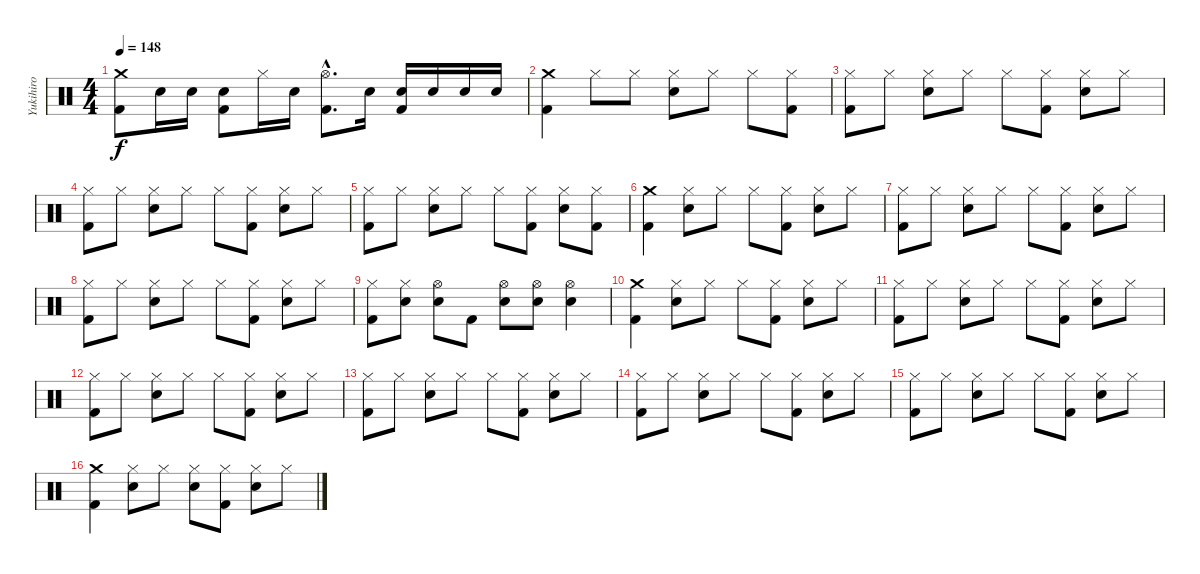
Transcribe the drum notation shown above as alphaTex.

\track ("Yukihiro" "Yukihiro") {instrument percussion}
\staff {score}
\articulation defaults
\ts (4 4)
\tempo 148
\clef neutral
\ks c
("Crash medium (hit)" "Kick (hit) 2").8{dy f} "Snare (hit) 2".16 "Snare (hit) 2".16 ("Snare (hit) 2" "Kick (hit) 2").8 "Hi-Hat (closed)".16 "Snare (hit) 2".16 ("Hi-Hat (open)"{hac} "Kick (hit) 2"{hac}).8{d} "Snare (hit) 2".16 ("Snare (hit) 2" "Kick (hit) 2").16 "Snare (hit) 2".16 "Snare (hit) 2".16 "Snare (hit) 2".16 |
("Crash medium (hit)" "Kick (hit) 2").4 "Hi-Hat (closed)".8 "Hi-Hat (closed)".8 ("Hi-Hat (closed)" "Snare (hit) 2").8 "Hi-Hat (closed)".8 "Hi-Hat (closed)".8 ("Hi-Hat (closed)" "Kick (hit) 2").8 |
("Hi-Hat (closed)" "Kick (hit) 2").8 "Hi-Hat (closed)".8 ("Hi-Hat (closed)" "Snare (hit) 2").8 "Hi-Hat (closed)".8 "Hi-Hat (closed)".8 ("Hi-Hat (closed)" "Kick (hit) 2").8 ("Hi-Hat (closed)" "Snare (hit) 2").8 "Hi-Hat (closed)".8 |
("Hi-Hat (closed)" "Kick (hit) 2").8 "Hi-Hat (closed)".8 ("Hi-Hat (closed)" "Snare (hit) 2").8 "Hi-Hat (closed)".8 "Hi-Hat (closed)".8 ("Hi-Hat (closed)" "Kick (hit) 2").8 ("Hi-Hat (closed)" "Snare (hit) 2").8 "Hi-Hat (closed)".8 |
("Hi-Hat (closed)" "Kick (hit) 2").8 "Hi-Hat (closed)".8 ("Hi-Hat (closed)" "Snare (hit) 2").8 "Hi-Hat (closed)".8 "Hi-Hat (closed)".8 ("Hi-Hat (closed)" "Kick (hit) 2").8 ("Hi-Hat (closed)" "Snare (hit) 2").8 ("Hi-Hat (closed)" "Kick (hit) 2").8 |
("Crash medium (hit)" "Kick (hit) 2").4 ("Hi-Hat (closed)" "Snare (hit) 2").8 "Hi-Hat (closed)".8 "Hi-Hat (closed)".8 ("Hi-Hat (closed)" "Kick (hit) 2").8 ("Hi-Hat (closed)" "Snare (hit) 2").8 "Hi-Hat (closed)".8 |
("Hi-Hat (closed)" "Kick (hit) 2").8 "Hi-Hat (closed)".8 ("Hi-Hat (closed)" "Snare (hit) 2").8 "Hi-Hat (closed)".8 "Hi-Hat (closed)".8 ("Hi-Hat (closed)" "Kick (hit) 2").8 ("Hi-Hat (closed)" "Snare (hit) 2").8 "Hi-Hat (closed)".8 |
("Hi-Hat (closed)" "Kick (hit) 2").8 "Hi-Hat (closed)".8 ("Hi-Hat (closed)" "Snare (hit) 2").8 "Hi-Hat (closed)".8 "Hi-Hat (closed)".8 ("Hi-Hat (closed)" "Kick (hit) 2").8 ("Hi-Hat (closed)" "Snare (hit) 2").8 "Hi-Hat (closed)".8 |
("Hi-Hat (closed)" "Kick (hit) 2").8 ("Hi-Hat (closed)" "Snare (hit) 2").8 ("Hi-Hat (open)" "Snare (hit) 2").8 "Kick (hit) 2".8 ("Hi-Hat (open)" "Snare (hit) 2").8 ("Hi-Hat (open)" "Snare (hit) 2").8 ("Hi-Hat (open)" "Snare (hit) 2").4 |
("Crash medium (hit)" "Kick (hit) 2").4 ("Hi-Hat (closed)" "Snare (hit) 2").8 "Hi-Hat (closed)".8 "Hi-Hat (closed)".8 ("Hi-Hat (closed)" "Kick (hit) 2").8 ("Hi-Hat (closed)" "Snare (hit) 2").8 "Hi-Hat (closed)".8 |
("Hi-Hat (closed)" "Kick (hit) 2").8 "Hi-Hat (closed)".8 ("Hi-Hat (closed)" "Snare (hit) 2").8 "Hi-Hat (closed)".8 "Hi-Hat (closed)".8 ("Hi-Hat (closed)" "Kick (hit) 2").8 ("Hi-Hat (closed)" "Snare (hit) 2").8 "Hi-Hat (closed)".8 |
("Hi-Hat (closed)" "Kick (hit) 2").8 "Hi-Hat (closed)".8 ("Hi-Hat (closed)" "Snare (hit) 2").8 "Hi-Hat (closed)".8 "Hi-Hat (closed)".8 ("Hi-Hat (closed)" "Kick (hit) 2").8 ("Hi-Hat (closed)" "Snare (hit) 2").8 "Hi-Hat (closed)".8 |
("Hi-Hat (closed)" "Kick (hit) 2").8 "Hi-Hat (closed)".8 ("Hi-Hat (closed)" "Snare (hit) 2").8 "Hi-Hat (closed)".8 "Hi-Hat (closed)".8 ("Hi-Hat (closed)" "Kick (hit) 2").8 ("Hi-Hat (closed)" "Snare (hit) 2").8 "Hi-Hat (closed)".8 |
("Hi-Hat (closed)" "Kick (hit) 2").8 "Hi-Hat (closed)".8 ("Hi-Hat (closed)" "Snare (hit) 2").8 "Hi-Hat (closed)".8 "Hi-Hat (closed)".8 ("Hi-Hat (closed)" "Kick (hit) 2").8 ("Hi-Hat (closed)" "Snare (hit) 2").8 "Hi-Hat (closed)".8 |
("Hi-Hat (closed)" "Kick (hit) 2").8 "Hi-Hat (closed)".8 ("Hi-Hat (closed)" "Snare (hit) 2").8 "Hi-Hat (closed)".8 "Hi-Hat (closed)".8 ("Hi-Hat (closed)" "Kick (hit) 2").8 ("Hi-Hat (closed)" "Snare (hit) 2").8 "Hi-Hat (closed)".8 |
("Crash medium (hit)" "Kick (hit) 2").4 ("Hi-Hat (closed)" "Snare (hit) 2").8 "Hi-Hat (closed)".8 ("Hi-Hat (closed)" "Snare (hit) 2").8 ("Hi-Hat (closed)" "Kick (hit) 2").8 ("Hi-Hat (closed)" "Snare (hit) 2").8 "Hi-Hat (closed)".8
